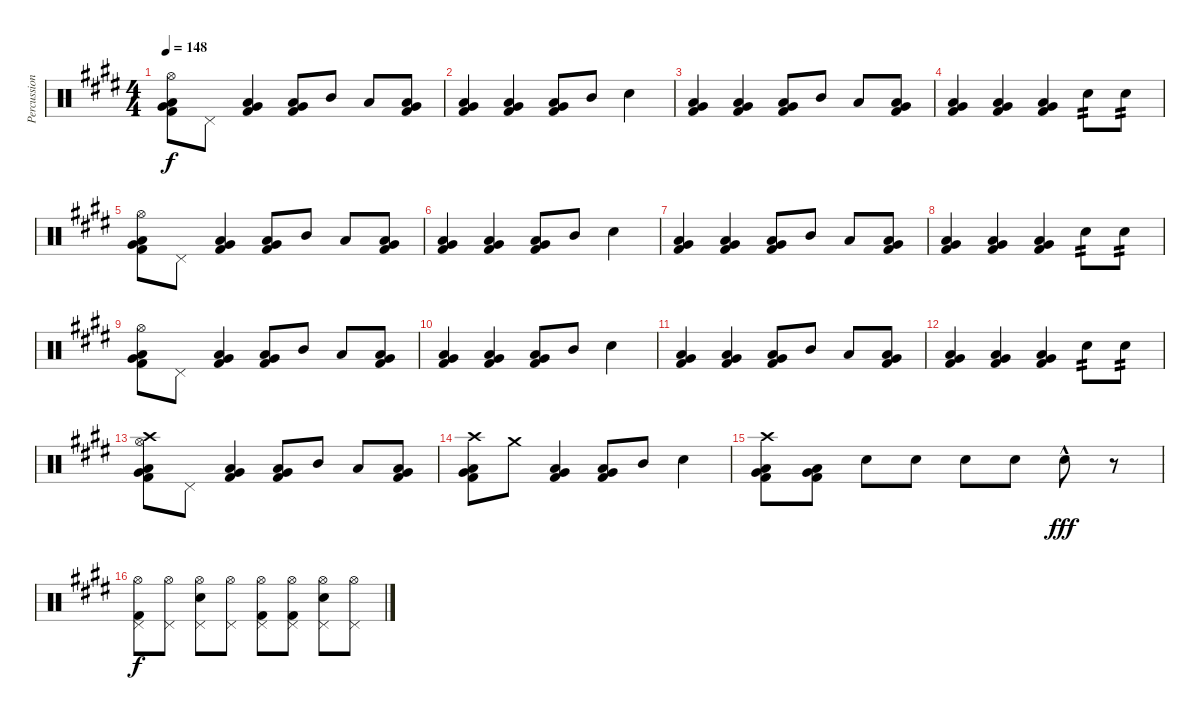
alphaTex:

\track ("Percussion" "Percussion") {instrument percussion}
\staff {score}
\articulation defaults
\ts (4 4)
\tempo 148
\clef neutral
\ks e
("Hi-Hat (open)" "Low Floor Tom (hit)" "Very Low Tom (hit)" "Kick (hit) 2").8{dy f} "Pedal Hi-Hat (hit)".8 ("Low Floor Tom (hit)" "Very Low Tom (hit)" "Kick (hit) 2").4 ("Low Floor Tom (hit)" "Very Low Tom (hit)" "Kick (hit) 2").8 "Mid Tom (hit)".8 "Low Tom (hit)".8 ("Low Floor Tom (hit)" "Very Low Tom (hit)" "Kick (hit) 2").8 |
("Low Floor Tom (hit)" "Very Low Tom (hit)" "Kick (hit) 2").4 ("Low Floor Tom (hit)" "Very Low Tom (hit)" "Kick (hit) 2").4 ("Low Floor Tom (hit)" "Very Low Tom (hit)" "Kick (hit) 2").8 "Mid Tom (hit)".8 "Snare (hit) 2".4 |
("Low Floor Tom (hit)" "Very Low Tom (hit)" "Kick (hit) 2").4 ("Low Floor Tom (hit)" "Very Low Tom (hit)" "Kick (hit) 2").4 ("Low Floor Tom (hit)" "Very Low Tom (hit)" "Kick (hit) 2").8 "Mid Tom (hit)".8 "Low Tom (hit)".8 ("Low Floor Tom (hit)" "Very Low Tom (hit)" "Kick (hit) 2").8 |
("Low Floor Tom (hit)" "Very Low Tom (hit)" "Kick (hit) 2").4 ("Low Floor Tom (hit)" "Very Low Tom (hit)" "Kick (hit) 2").4 ("Low Floor Tom (hit)" "Very Low Tom (hit)" "Kick (hit) 2").4 "Snare (hit) 2".8{tp 2} "Snare (hit) 2".8{tp 2} |
("Hi-Hat (open)" "Low Floor Tom (hit)" "Very Low Tom (hit)" "Kick (hit) 2").8 "Pedal Hi-Hat (hit)".8 ("Low Floor Tom (hit)" "Very Low Tom (hit)" "Kick (hit) 2").4 ("Low Floor Tom (hit)" "Very Low Tom (hit)" "Kick (hit) 2").8 "Mid Tom (hit)".8 "Low Tom (hit)".8 ("Low Floor Tom (hit)" "Very Low Tom (hit)" "Kick (hit) 2").8 |
("Low Floor Tom (hit)" "Very Low Tom (hit)" "Kick (hit) 2").4 ("Low Floor Tom (hit)" "Very Low Tom (hit)" "Kick (hit) 2").4 ("Low Floor Tom (hit)" "Very Low Tom (hit)" "Kick (hit) 2").8 "Mid Tom (hit)".8 "Snare (hit) 2".4 |
("Low Floor Tom (hit)" "Very Low Tom (hit)" "Kick (hit) 2").4 ("Low Floor Tom (hit)" "Very Low Tom (hit)" "Kick (hit) 2").4 ("Low Floor Tom (hit)" "Very Low Tom (hit)" "Kick (hit) 2").8 "Mid Tom (hit)".8 "Low Tom (hit)".8 ("Low Floor Tom (hit)" "Very Low Tom (hit)" "Kick (hit) 2").8 |
("Low Floor Tom (hit)" "Very Low Tom (hit)" "Kick (hit) 2").4 ("Low Floor Tom (hit)" "Very Low Tom (hit)" "Kick (hit) 2").4 ("Low Floor Tom (hit)" "Very Low Tom (hit)" "Kick (hit) 2").4 "Snare (hit) 2".8{tp 2} "Snare (hit) 2".8{tp 2} |
("Hi-Hat (open)" "Low Floor Tom (hit)" "Very Low Tom (hit)" "Kick (hit) 2").8 "Pedal Hi-Hat (hit)".8 ("Low Floor Tom (hit)" "Very Low Tom (hit)" "Kick (hit) 2").4 ("Low Floor Tom (hit)" "Very Low Tom (hit)" "Kick (hit) 2").8 "Mid Tom (hit)".8 "Low Tom (hit)".8 ("Low Floor Tom (hit)" "Very Low Tom (hit)" "Kick (hit) 2").8 |
("Low Floor Tom (hit)" "Very Low Tom (hit)" "Kick (hit) 2").4 ("Low Floor Tom (hit)" "Very Low Tom (hit)" "Kick (hit) 2").4 ("Low Floor Tom (hit)" "Very Low Tom (hit)" "Kick (hit) 2").8 "Mid Tom (hit)".8 "Snare (hit) 2".4 |
("Low Floor Tom (hit)" "Very Low Tom (hit)" "Kick (hit) 2").4 ("Low Floor Tom (hit)" "Very Low Tom (hit)" "Kick (hit) 2").4 ("Low Floor Tom (hit)" "Very Low Tom (hit)" "Kick (hit) 2").8 "Mid Tom (hit)".8 "Low Tom (hit)".8 ("Low Floor Tom (hit)" "Very Low Tom (hit)" "Kick (hit) 2").8 |
("Low Floor Tom (hit)" "Very Low Tom (hit)" "Kick (hit) 2").4 ("Low Floor Tom (hit)" "Very Low Tom (hit)" "Kick (hit) 2").4 ("Low Floor Tom (hit)" "Very Low Tom (hit)" "Kick (hit) 2").4 "Snare (hit) 2".8{tp 2} "Snare (hit) 2".8{tp 2} |
("Crash high (hit)" "Hi-Hat (open)" "Low Floor Tom (hit)" "Very Low Tom (hit)" "Kick (hit) 2").8 "Pedal Hi-Hat (hit)".8 ("Low Floor Tom (hit)" "Very Low Tom (hit)" "Kick (hit) 2").4 ("Low Floor Tom (hit)" "Very Low Tom (hit)" "Kick (hit) 2").8 "Mid Tom (hit)".8 "Low Tom (hit)".8 ("Low Floor Tom (hit)" "Very Low Tom (hit)" "Kick (hit) 2").8 |
("Crash high (hit)" "Low Floor Tom (hit)" "Very Low Tom (hit)" "Kick (hit) 2").8 "Crash medium (hit)".8 ("Low Floor Tom (hit)" "Very Low Tom (hit)" "Kick (hit) 2").4 ("Low Floor Tom (hit)" "Very Low Tom (hit)" "Kick (hit) 2").8 "Mid Tom (hit)".8 "Snare (hit) 2".4 |
("Crash high (hit)" "Low Floor Tom (hit)" "Very Low Tom (hit)" "Kick (hit) 2").8 ("Low Floor Tom (hit)" "Very Low Tom (hit)" "Kick (hit) 2").8 "Snare (hit) 2".8 "Snare (hit) 2".8 "Snare (hit) 2".8 "Snare (hit) 2".8 "Snare (hit) 2"{hac}.8{dy fff} r.8 |
("Hi-Hat (open)" "Pedal Hi-Hat (hit)" "Kick (hit) 2").8{dy f} ("Hi-Hat (open)" "Pedal Hi-Hat (hit)").8 ("Hi-Hat (open)" "Pedal Hi-Hat (hit)" "Snare (hit) 2").8 ("Hi-Hat (open)" "Pedal Hi-Hat (hit)").8 ("Hi-Hat (open)" "Pedal Hi-Hat (hit)" "Kick (hit) 2").8 ("Hi-Hat (open)" "Pedal Hi-Hat (hit)" "Kick (hit) 2").8 ("Hi-Hat (open)" "Pedal Hi-Hat (hit)" "Snare (hit) 2").8 ("Hi-Hat (open)" "Pedal Hi-Hat (hit)").8
